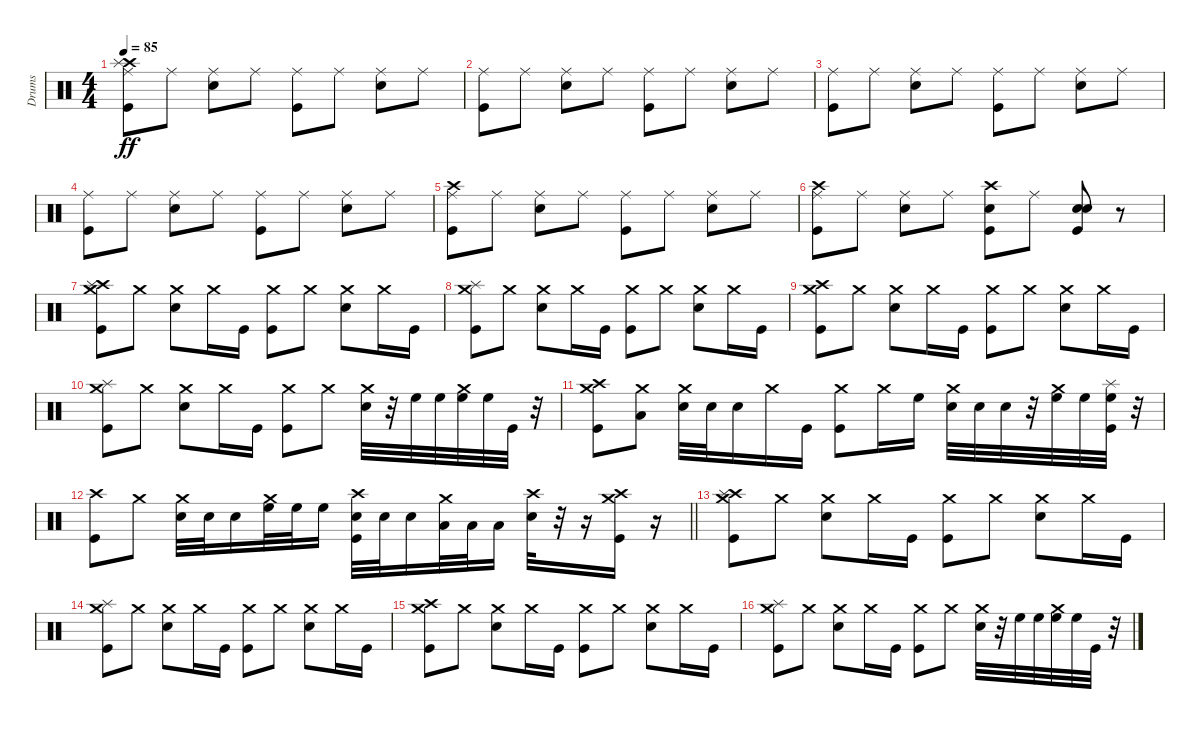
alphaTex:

\track ("Drums" "Drums") {instrument percussion}
\staff {score}
\articulation defaults
\ts (4 4)
\tempo 85
\clef neutral
\ks c
("Crash high (hit)" "Splash (hit)" "Ride (middle)" "Kick (hit)").8{dy ff} "Ride (middle)".8 ("Ride (middle)" "Snare (hit) 2").8 "Ride (middle)".8 ("Ride (middle)" "Kick (hit)").8 "Ride (middle)".8 ("Ride (middle)" "Snare (hit) 2").8 "Ride (middle)".8 |
("Ride (middle)" "Kick (hit)").8 "Ride (middle)".8 ("Ride (middle)" "Snare (hit) 2").8 "Ride (middle)".8 ("Ride (middle)" "Kick (hit)").8 "Ride (middle)".8 ("Ride (middle)" "Snare (hit) 2").8 "Ride (middle)".8 |
("Ride (middle)" "Kick (hit)").8 "Ride (middle)".8 ("Ride (middle)" "Snare (hit) 2").8 "Ride (middle)".8 ("Ride (middle)" "Kick (hit)").8 "Ride (middle)".8 ("Ride (middle)" "Snare (hit) 2").8 "Ride (middle)".8 |
("Ride (middle)" "Kick (hit)").8 "Ride (middle)".8 ("Ride (middle)" "Snare (hit) 2").8 "Ride (middle)".8 ("Ride (middle)" "Kick (hit)").8 "Ride (middle)".8 ("Ride (middle)" "Snare (hit) 2").8 "Ride (middle)".8 |
("Crash high (hit)" "Ride (middle)" "Kick (hit)").8 "Ride (middle)".8 ("Ride (middle)" "Snare (hit) 2").8 "Ride (middle)".8 ("Ride (middle)" "Kick (hit)").8 "Ride (middle)".8 ("Ride (middle)" "Snare (hit) 2").8 "Ride (middle)".8 |
("Crash high (hit)" "Ride (middle)" "Kick (hit)").8 "Ride (middle)".8 ("Ride (middle)" "Snare (hit) 2").8 "Ride (middle)".8 ("Crash high (hit)" "Snare (hit) 2" "Kick (hit)").8 "Ride (middle)".8 ("Snare (hit) 2" "Snare (hit) 2" "Kick (hit)").8 r.8 |
("Crash high (hit)" "Splash (hit)" "Crash medium (hit)" "Kick (hit)").8 "Crash medium (hit)".8 ("Crash medium (hit)" "Snare (hit) 2").8 "Crash medium (hit)".16 "Kick (hit)".16 ("Crash medium (hit)" "Kick (hit)").8 "Crash medium (hit)".8 ("Crash medium (hit)" "Snare (hit) 2").8 "Crash medium (hit)".16 "Kick (hit)".16 |
("Splash (hit)" "Crash medium (hit)" "Kick (hit)").8 "Crash medium (hit)".8 ("Crash medium (hit)" "Snare (hit) 2").8 "Crash medium (hit)".16 "Kick (hit)".16 ("Crash medium (hit)" "Kick (hit)").8 "Crash medium (hit)".8 ("Crash medium (hit)" "Snare (hit) 2").8 "Crash medium (hit)".16 "Kick (hit)".16 |
("Crash high (hit)" "Crash medium (hit)" "Kick (hit)").8 "Crash medium (hit)".8 ("Crash medium (hit)" "Snare (hit) 2").8 "Crash medium (hit)".16 "Kick (hit)".16 ("Crash medium (hit)" "Kick (hit)").8 "Crash medium (hit)".8 ("Crash medium (hit)" "Snare (hit) 2").8 "Crash medium (hit)".16 "Kick (hit)".16 |
("Splash (hit)" "Crash medium (hit)" "Kick (hit)").8 "Crash medium (hit)".8 ("Crash medium (hit)" "Snare (hit) 2").8 "Crash medium (hit)".16 "Kick (hit)".16 ("Crash medium (hit)" "Kick (hit)").8 "Crash medium (hit)".8 ("Crash medium (hit)" "Snare (hit) 2").32 r.32 "High Floor Tom (hit)".32 "High Floor Tom (hit)".32 ("Crash medium (hit)" "High Floor Tom (hit)").32 "High Floor Tom (hit)".32 "Kick (hit)".32 r.32 |
("Crash high (hit)" "Crash medium (hit)" "Kick (hit)").8 ("Crash medium (hit)" "Low Tom (hit)").8 ("Crash medium (hit)" "Snare (hit) 2").32 "Snare (hit) 2".32 "Snare (hit) 2".16 "Crash medium (hit)".16 "Kick (hit)".16 ("Crash medium (hit)" "Kick (hit)").8 "Crash medium (hit)".16 "High Floor Tom (hit)".16 ("Crash medium (hit)" "Snare (hit) 2").32 "Snare (hit) 2".32 "Snare (hit) 2".32 r.32 ("Crash medium (hit)" "High Floor Tom (hit)").32 "High Floor Tom (hit)".32 ("Splash (hit)" "High Floor Tom (hit)" "Kick (hit)").32 r.32 |
\barLineRight lightlight
("Crash high (hit)" "Kick (hit)").8 "Crash medium (hit)".8 ("Crash medium (hit)" "Snare (hit) 2").32 "Snare (hit) 2".32 "Snare (hit) 2".16 ("Crash medium (hit)" "High Floor Tom (hit)").32 "High Floor Tom (hit)".32 "High Floor Tom (hit)".16 ("Crash high (hit)" "Snare (hit) 2" "Kick (hit)").32 "Snare (hit) 2".32 "Snare (hit) 2".16 ("Crash medium (hit)" "Low Tom (hit)").32 "Low Tom (hit)".32 "Low Tom (hit)".16 ("Crash high (hit)" "Snare (hit) 2").32 r.32 r.16 ("Crash high (hit)" "Crash medium (hit)" "Kick (hit)").16 r.16 |
("Crash high (hit)" "Splash (hit)" "Crash medium (hit)" "Kick (hit)").8 "Crash medium (hit)".8 ("Crash medium (hit)" "Snare (hit) 2").8 "Crash medium (hit)".16 "Kick (hit)".16 ("Crash medium (hit)" "Kick (hit)").8 "Crash medium (hit)".8 ("Crash medium (hit)" "Snare (hit) 2").8 "Crash medium (hit)".16 "Kick (hit)".16 |
("Splash (hit)" "Crash medium (hit)" "Kick (hit)").8 "Crash medium (hit)".8 ("Crash medium (hit)" "Snare (hit) 2").8 "Crash medium (hit)".16 "Kick (hit)".16 ("Crash medium (hit)" "Kick (hit)").8 "Crash medium (hit)".8 ("Crash medium (hit)" "Snare (hit) 2").8 "Crash medium (hit)".16 "Kick (hit)".16 |
("Crash high (hit)" "Crash medium (hit)" "Kick (hit)").8 "Crash medium (hit)".8 ("Crash medium (hit)" "Snare (hit) 2").8 "Crash medium (hit)".16 "Kick (hit)".16 ("Crash medium (hit)" "Kick (hit)").8 "Crash medium (hit)".8 ("Crash medium (hit)" "Snare (hit) 2").8 "Crash medium (hit)".16 "Kick (hit)".16 |
("Splash (hit)" "Crash medium (hit)" "Kick (hit)").8 "Crash medium (hit)".8 ("Crash medium (hit)" "Snare (hit) 2").8 "Crash medium (hit)".16 "Kick (hit)".16 ("Crash medium (hit)" "Kick (hit)").8 "Crash medium (hit)".8 ("Crash medium (hit)" "Snare (hit) 2").32 r.32 "High Floor Tom (hit)".32 "High Floor Tom (hit)".32 ("Crash medium (hit)" "High Floor Tom (hit)").32 "High Floor Tom (hit)".32 "Kick (hit)".32 r.32
